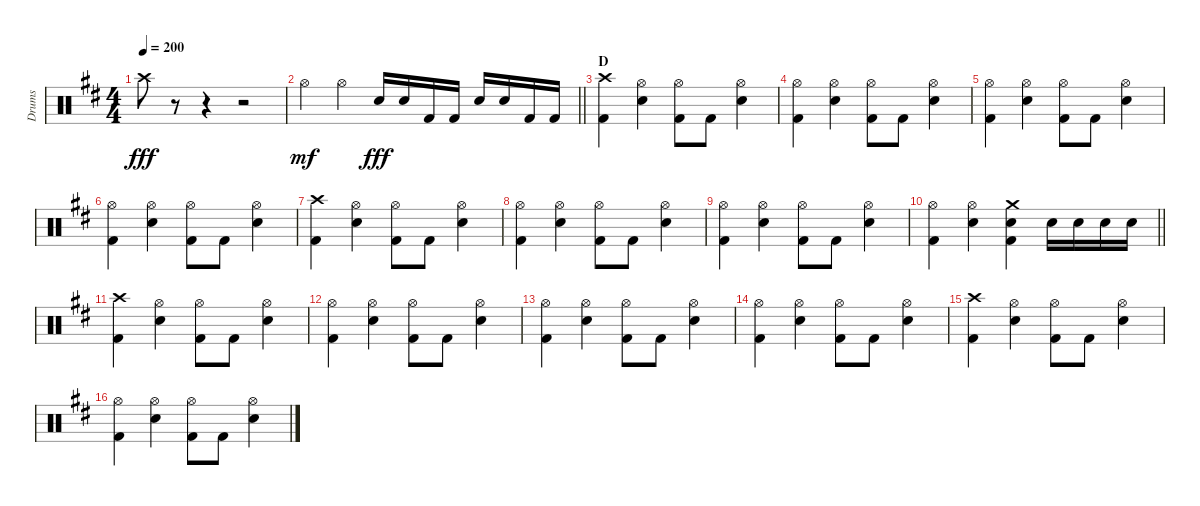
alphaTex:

\track ("Drums" "Drums") {instrument percussion}
\staff {score}
\articulation defaults
\ts (4 4)
\tempo 200
\clef neutral
\ks d "Crash high (hit)".8{txt "" dy fff}
r.8{volume 0} r.4 r.2 |
\barLineRight lightlight "Hi-Hat (open)".4{dy mf volume 16} "Hi-Hat (open)".4 "Snare (hit) 2".16{dy fff} "Snare (hit) 2".16 "Kick (hit) 2".16 "Kick (hit) 2".16 "Snare (hit) 2".16 "Snare (hit) 2".16 "Kick (hit) 2".16 "Kick (hit) 2".16
|
\section ("" "D")
("Crash high (hit)" "Kick (hit) 2").4 ("Hi-Hat (open)" "Snare (hit) 2").4 ("Hi-Hat (open)" "Kick (hit) 2").8 "Kick (hit) 2".8 ("Hi-Hat (open)" "Snare (hit) 2").4 |
("Hi-Hat (open)" "Kick (hit) 2").4 ("Hi-Hat (open)" "Snare (hit) 2").4 ("Hi-Hat (open)" "Kick (hit) 2").8 "Kick (hit) 2".8 ("Hi-Hat (open)" "Snare (hit) 2").4 |
("Hi-Hat (open)" "Kick (hit) 2").4 ("Hi-Hat (open)" "Snare (hit) 2").4 ("Hi-Hat (open)" "Kick (hit) 2").8 "Kick (hit) 2".8 ("Hi-Hat (open)" "Snare (hit) 2").4 |
("Hi-Hat (open)" "Kick (hit) 2").4 ("Hi-Hat (open)" "Snare (hit) 2").4 ("Hi-Hat (open)" "Kick (hit) 2").8 "Kick (hit) 2".8 ("Hi-Hat (open)" "Snare (hit) 2").4 |
("Crash high (hit)" "Kick (hit) 2").4 ("Hi-Hat (open)" "Snare (hit) 2").4 ("Hi-Hat (open)" "Kick (hit) 2").8 "Kick (hit) 2".8 ("Hi-Hat (open)" "Snare (hit) 2").4 |
("Hi-Hat (open)" "Kick (hit) 2").4 ("Hi-Hat (open)" "Snare (hit) 2").4 ("Hi-Hat (open)" "Kick (hit) 2").8 "Kick (hit) 2".8 ("Hi-Hat (open)" "Snare (hit) 2").4 |
("Hi-Hat (open)" "Kick (hit) 2").4 ("Hi-Hat (open)" "Snare (hit) 2").4 ("Hi-Hat (open)" "Kick (hit) 2").8 "Kick (hit) 2".8 ("Hi-Hat (open)" "Snare (hit) 2").4 |
\barLineRight lightlight
("Hi-Hat (open)" "Kick (hit) 2").4 ("Hi-Hat (open)" "Snare (hit) 2").4 ("Crash medium (hit)" "Snare (hit) 2" "Kick (hit) 2").4 "Snare (hit) 2".16 "Snare (hit) 2".16 "Snare (hit) 2".16 "Snare (hit) 2".16 |
("Crash high (hit)" "Kick (hit) 2").4 ("Hi-Hat (open)" "Snare (hit) 2").4 ("Hi-Hat (open)" "Kick (hit) 2").8 "Kick (hit) 2".8 ("Hi-Hat (open)" "Snare (hit) 2").4 |
("Hi-Hat (open)" "Kick (hit) 2").4 ("Hi-Hat (open)" "Snare (hit) 2").4 ("Hi-Hat (open)" "Kick (hit) 2").8 "Kick (hit) 2".8 ("Hi-Hat (open)" "Snare (hit) 2").4 |
("Hi-Hat (open)" "Kick (hit) 2").4 ("Hi-Hat (open)" "Snare (hit) 2").4 ("Hi-Hat (open)" "Kick (hit) 2").8 "Kick (hit) 2".8 ("Hi-Hat (open)" "Snare (hit) 2").4 |
("Hi-Hat (open)" "Kick (hit) 2").4 ("Hi-Hat (open)" "Snare (hit) 2").4 ("Hi-Hat (open)" "Kick (hit) 2").8 "Kick (hit) 2".8 ("Hi-Hat (open)" "Snare (hit) 2").4 |
("Crash high (hit)" "Kick (hit) 2").4 ("Hi-Hat (open)" "Snare (hit) 2").4 ("Hi-Hat (open)" "Kick (hit) 2").8 "Kick (hit) 2".8 ("Hi-Hat (open)" "Snare (hit) 2").4 |
("Hi-Hat (open)" "Kick (hit) 2").4 ("Hi-Hat (open)" "Snare (hit) 2").4 ("Hi-Hat (open)" "Kick (hit) 2").8 "Kick (hit) 2".8 ("Hi-Hat (open)" "Snare (hit) 2").4
